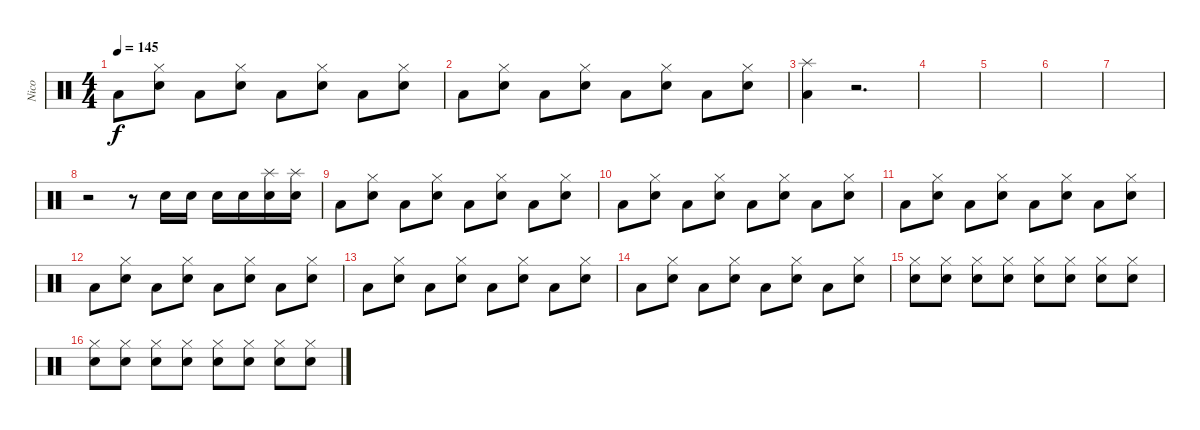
\track ("Nico" "Nico") {instrument percussion}
\staff {score}
\articulation defaults
\ts (4 4)
\tempo 145
\clef neutral
\ks c "Low Floor Tom (hit)".8{dy f}
("Snare (hit) 2" "Hi-Hat (closed)").8 "Low Floor Tom (hit)".8 ("Snare (hit) 2" "Hi-Hat (closed)").8 "Low Floor Tom (hit)".8 ("Snare (hit) 2" "Hi-Hat (closed)").8 "Low Floor Tom (hit)".8 ("Snare (hit) 2" "Hi-Hat (closed)").8 |
"Low Floor Tom (hit)".8 ("Snare (hit) 2" "Hi-Hat (closed)").8 "Low Floor Tom (hit)".8 ("Snare (hit) 2" "Hi-Hat (closed)").8 "Low Floor Tom (hit)".8 ("Snare (hit) 2" "Hi-Hat (closed)").8 "Low Floor Tom (hit)".8 ("Snare (hit) 2" "Hi-Hat (closed)").8 |
("Low Floor Tom (hit)" "Splash (hit)").4 r.2{d} |
|
|
|
|
r.2 r.8 "Snare (hit) 2".16 "Snare (hit) 2".16 "Snare (hit) 2".16 "Snare (hit) 2".16 ("Snare (hit) 2" "Splash (hit)").16 ("Snare (hit) 2" "Splash (hit)").16 |
"Low Floor Tom (hit)".8 ("Snare (hit) 2" "Hi-Hat (closed)").8 "Low Floor Tom (hit)".8 ("Snare (hit) 2" "Hi-Hat (closed)").8 "Low Floor Tom (hit)".8 ("Snare (hit) 2" "Hi-Hat (closed)").8 "Low Floor Tom (hit)".8 ("Snare (hit) 2" "Hi-Hat (closed)").8 |
"Low Floor Tom (hit)".8 ("Snare (hit) 2" "Hi-Hat (closed)").8 "Low Floor Tom (hit)".8 ("Snare (hit) 2" "Hi-Hat (closed)").8 "Low Floor Tom (hit)".8 ("Snare (hit) 2" "Hi-Hat (closed)").8 "Low Floor Tom (hit)".8 ("Snare (hit) 2" "Hi-Hat (closed)").8 |
"Low Floor Tom (hit)".8 ("Snare (hit) 2" "Hi-Hat (closed)").8 "Low Floor Tom (hit)".8 ("Snare (hit) 2" "Hi-Hat (closed)").8 "Low Floor Tom (hit)".8 ("Snare (hit) 2" "Hi-Hat (closed)").8 "Low Floor Tom (hit)".8 ("Snare (hit) 2" "Hi-Hat (closed)").8 |
"Low Floor Tom (hit)".8 ("Snare (hit) 2" "Hi-Hat (closed)").8 "Low Floor Tom (hit)".8 ("Snare (hit) 2" "Hi-Hat (closed)").8 "Low Floor Tom (hit)".8 ("Snare (hit) 2" "Hi-Hat (closed)").8 "Low Floor Tom (hit)".8 ("Snare (hit) 2" "Hi-Hat (closed)").8 |
"Low Floor Tom (hit)".8 ("Snare (hit) 2" "Hi-Hat (closed)").8 "Low Floor Tom (hit)".8 ("Snare (hit) 2" "Hi-Hat (closed)").8 "Low Floor Tom (hit)".8 ("Snare (hit) 2" "Hi-Hat (closed)").8 "Low Floor Tom (hit)".8 ("Snare (hit) 2" "Hi-Hat (closed)").8 |
"Low Floor Tom (hit)".8 ("Snare (hit) 2" "Hi-Hat (closed)").8 "Low Floor Tom (hit)".8 ("Snare (hit) 2" "Hi-Hat (closed)").8 "Low Floor Tom (hit)".8 ("Snare (hit) 2" "Hi-Hat (closed)").8 "Low Floor Tom (hit)".8 ("Snare (hit) 2" "Hi-Hat (closed)").8 |
("Snare (hit) 2" "Hi-Hat (closed)").8 ("Snare (hit) 2" "Hi-Hat (closed)").8 ("Snare (hit) 2" "Hi-Hat (closed)").8 ("Snare (hit) 2" "Hi-Hat (closed)").8 ("Snare (hit) 2" "Hi-Hat (closed)").8 ("Snare (hit) 2" "Hi-Hat (closed)").8 ("Snare (hit) 2" "Hi-Hat (closed)").8 ("Snare (hit) 2" "Hi-Hat (closed)").8 |
("Snare (hit) 2" "Hi-Hat (closed)").8 ("Snare (hit) 2" "Hi-Hat (closed)").8 ("Snare (hit) 2" "Hi-Hat (closed)").8 ("Snare (hit) 2" "Hi-Hat (closed)").8 ("Snare (hit) 2" "Hi-Hat (closed)").8 ("Snare (hit) 2" "Hi-Hat (closed)").8 ("Snare (hit) 2" "Hi-Hat (closed)").8 ("Snare (hit) 2" "Hi-Hat (closed)").8
